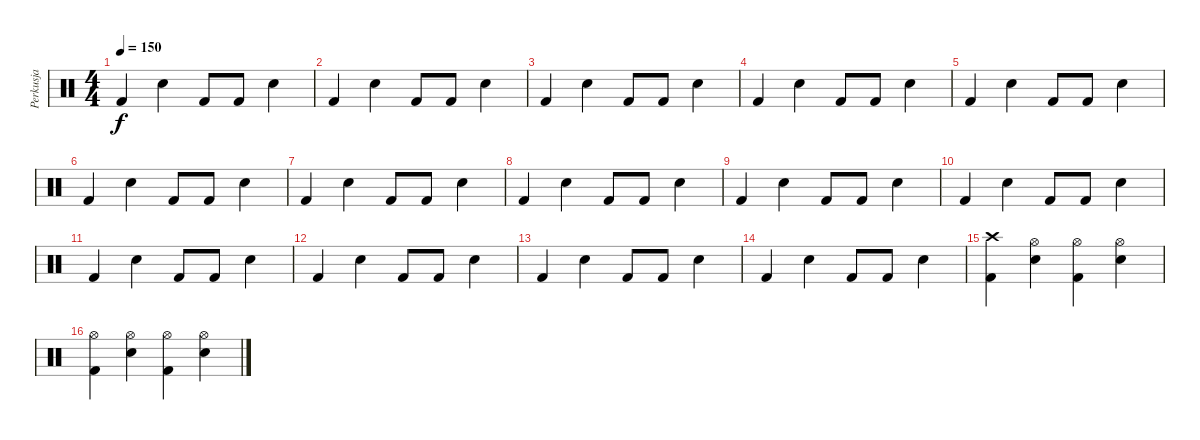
\track ("Perkusja" "Perkusja") {instrument percussion}
\staff {score}
\articulation defaults
\ts (4 4)
\tempo 150
\clef neutral
\ks c "Kick (hit) 2".4{dy f} "Electric Snare (hit)".4 "Kick (hit) 2".8 "Kick (hit) 2".8 "Electric Snare (hit)".4
|
"Kick (hit) 2".4 "Electric Snare (hit)".4 "Kick (hit) 2".8 "Kick (hit) 2".8 "Electric Snare (hit)".4 |
"Kick (hit) 2".4 "Electric Snare (hit)".4 "Kick (hit) 2".8 "Kick (hit) 2".8 "Electric Snare (hit)".4 |
"Kick (hit) 2".4 "Electric Snare (hit)".4 "Kick (hit) 2".8 "Kick (hit) 2".8 "Electric Snare (hit)".4 |
"Kick (hit) 2".4 "Electric Snare (hit)".4 "Kick (hit) 2".8 "Kick (hit) 2".8 "Electric Snare (hit)".4 |
"Kick (hit) 2".4 "Electric Snare (hit)".4 "Kick (hit) 2".8 "Kick (hit) 2".8 "Electric Snare (hit)".4 |
"Kick (hit) 2".4 "Electric Snare (hit)".4 "Kick (hit) 2".8 "Kick (hit) 2".8 "Electric Snare (hit)".4 |
"Kick (hit) 2".4 "Electric Snare (hit)".4 "Kick (hit) 2".8 "Kick (hit) 2".8 "Electric Snare (hit)".4 |
"Kick (hit) 2".4 "Electric Snare (hit)".4 "Kick (hit) 2".8 "Kick (hit) 2".8 "Electric Snare (hit)".4 |
"Kick (hit) 2".4 "Electric Snare (hit)".4 "Kick (hit) 2".8 "Kick (hit) 2".8 "Electric Snare (hit)".4 |
"Kick (hit) 2".4 "Electric Snare (hit)".4 "Kick (hit) 2".8 "Kick (hit) 2".8 "Electric Snare (hit)".4 |
"Kick (hit) 2".4 "Electric Snare (hit)".4 "Kick (hit) 2".8 "Kick (hit) 2".8 "Electric Snare (hit)".4 |
"Kick (hit) 2".4 "Electric Snare (hit)".4 "Kick (hit) 2".8 "Kick (hit) 2".8 "Electric Snare (hit)".4 |
"Kick (hit) 2".4 "Electric Snare (hit)".4 "Kick (hit) 2".8 "Kick (hit) 2".8 "Electric Snare (hit)".4 |
("Crash high (hit)" "Kick (hit) 2").4 ("Hi-Hat (open)" "Electric Snare (hit)").4 ("Hi-Hat (open)" "Kick (hit) 2").4 ("Hi-Hat (open)" "Electric Snare (hit)").4 |
("Hi-Hat (open)" "Kick (hit) 2").4 ("Hi-Hat (open)" "Electric Snare (hit)").4 ("Hi-Hat (open)" "Kick (hit) 2").4 ("Hi-Hat (open)" "Electric Snare (hit)").4
